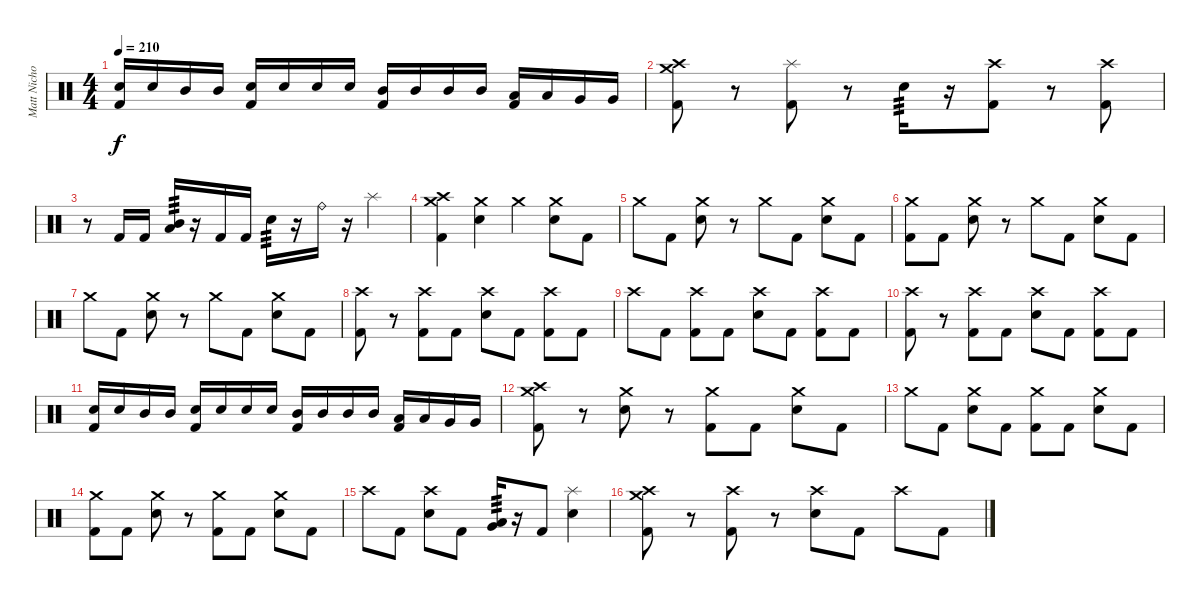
\track ("Matt Nichols" "Matt Nicho") {instrument percussion}
\staff {score}
\articulation defaults
\ts (4 4)
\tempo 210
\clef neutral
\ks c
("Snare (hit) 2" "Kick (hit) 2").16{dy f} "Snare (hit) 2".16 "Mid Tom (hit)".16 "Mid Tom (hit)".16 ("Snare (hit) 2" "Kick (hit) 2").16 "Snare (hit) 2".16 "Snare (hit) 2".16 "Snare (hit) 2".16 ("Mid Tom (hit)" "Kick (hit) 2").16 "Mid Tom (hit)".16 "Mid Tom (hit)".16 "Mid Tom (hit)".16 ("Low Tom (hit)" "Kick (hit) 2").16 "Low Tom (hit)".16 "Very Low Tom (hit)".16 "Very Low Tom (hit)".16 |
("Crash high (hit)" "Crash medium (hit)" "Kick (hit) 2").8 r.8 ("Splash (hit)" "Kick (hit) 2").8 r.8 "Snare (hit) 2".16{tp 3} r.16 ("Crash high (hit)" "Kick (hit) 2").8 r.8 ("Crash high (hit)" "Kick (hit) 2").8 |
r.8{volume 0} "Kick (hit) 2".16{volume 16} "Kick (hit) 2".16 ("Mid Tom (hit)" "Low Tom (hit)").16{tp 3} r.16 "Kick (hit) 2".16 "Kick (hit) 2".16 "Snare (hit) 2".16{tp 3} r.16 "Ride (bell)".16 r.16{volume 0} "Splash (hit)".4{volume 16} |
("Crash high (hit)" "Crash medium (hit)" "Kick (hit) 2").4 ("Crash medium (hit)" "Snare (hit) 2").4 "Crash medium (hit)".4 ("Crash medium (hit)" "Snare (hit) 2").8 "Kick (hit) 2".8 |
"Crash medium (hit)".8 "Kick (hit) 2".8 ("Crash medium (hit)" "Snare (hit) 2").8 r.8 "Crash medium (hit)".8 "Kick (hit) 2".8 ("Crash medium (hit)" "Snare (hit) 2").8 "Kick (hit) 2".8 |
("Crash medium (hit)" "Kick (hit) 2").8 "Kick (hit) 2".8 ("Crash medium (hit)" "Snare (hit) 2").8 r.8 "Crash medium (hit)".8 "Kick (hit) 2".8 ("Crash medium (hit)" "Snare (hit) 2").8 "Kick (hit) 2".8 |
"Crash medium (hit)".8 "Kick (hit) 2".8 ("Crash medium (hit)" "Snare (hit) 2").8 r.8 "Crash medium (hit)".8 "Kick (hit) 2".8 ("Crash medium (hit)" "Snare (hit) 2").8 "Kick (hit) 2".8 |
("Crash high (hit)" "Kick (hit) 2").8 r.8 ("Crash high (hit)" "Kick (hit) 2").8 "Kick (hit) 2".8 ("Crash high (hit)" "Snare (hit) 2").8 "Kick (hit) 2".8 ("Crash high (hit)" "Kick (hit) 2").8 "Kick (hit) 2".8 |
"Crash high (hit)".8 "Kick (hit) 2".8 ("Crash high (hit)" "Kick (hit) 2").8 "Kick (hit) 2".8 ("Crash high (hit)" "Snare (hit) 2").8 "Kick (hit) 2".8 ("Crash high (hit)" "Kick (hit) 2").8 "Kick (hit) 2".8 |
("Crash high (hit)" "Kick (hit) 2").8 r.8 ("Crash high (hit)" "Kick (hit) 2").8 "Kick (hit) 2".8 ("Crash high (hit)" "Snare (hit) 2").8 "Kick (hit) 2".8 ("Crash high (hit)" "Kick (hit) 2").8 "Kick (hit) 2".8 |
("Snare (hit) 2" "Kick (hit) 2").16 "Snare (hit) 2".16 "Mid Tom (hit)".16 "Mid Tom (hit)".16 ("Snare (hit) 2" "Kick (hit) 2").16 "Snare (hit) 2".16 "Snare (hit) 2".16 "Snare (hit) 2".16 ("Mid Tom (hit)" "Kick (hit) 2").16 "Mid Tom (hit)".16 "Mid Tom (hit)".16 "Mid Tom (hit)".16 ("Low Tom (hit)" "Kick (hit) 2").16 "Low Tom (hit)".16 "Very Low Tom (hit)".16 "Very Low Tom (hit)".16 |
("Crash high (hit)" "Crash medium (hit)" "Kick (hit) 2").8 r.8 ("Crash medium (hit)" "Snare (hit) 2").8 r.8 ("Crash medium (hit)" "Kick (hit) 2").8 "Kick (hit) 2".8 ("Crash medium (hit)" "Snare (hit) 2").8 "Kick (hit) 2".8 |
"Crash medium (hit)".8 "Kick (hit) 2".8 ("Crash medium (hit)" "Snare (hit) 2").8 "Kick (hit) 2".8 ("Crash medium (hit)" "Kick (hit) 2").8 "Kick (hit) 2".8 ("Crash medium (hit)" "Snare (hit) 2").8 "Kick (hit) 2".8 |
("Crash medium (hit)" "Kick (hit) 2").8 "Kick (hit) 2".8 ("Crash medium (hit)" "Snare (hit) 2").8 r.8 ("Crash medium (hit)" "Kick (hit) 2").8 "Kick (hit) 2".8 ("Crash medium (hit)" "Snare (hit) 2").8 "Kick (hit) 2".8 |
"Crash high (hit)".8 "Kick (hit) 2".8 ("Crash high (hit)" "Snare (hit) 2").8 "Kick (hit) 2".8 ("Low Tom (hit)" "Very Low Tom (hit)").16{tp 3} r.16 "Kick (hit) 2".8 ("Splash (hit)" "Snare (hit) 2").4 |
("Crash high (hit)" "Crash medium (hit)" "Kick (hit) 2").8 r.8 ("Crash high (hit)" "Kick (hit) 2").8 r.8 ("Crash high (hit)" "Snare (hit) 2").8 "Kick (hit) 2".8 "Crash high (hit)".8 "Kick (hit) 2".8
